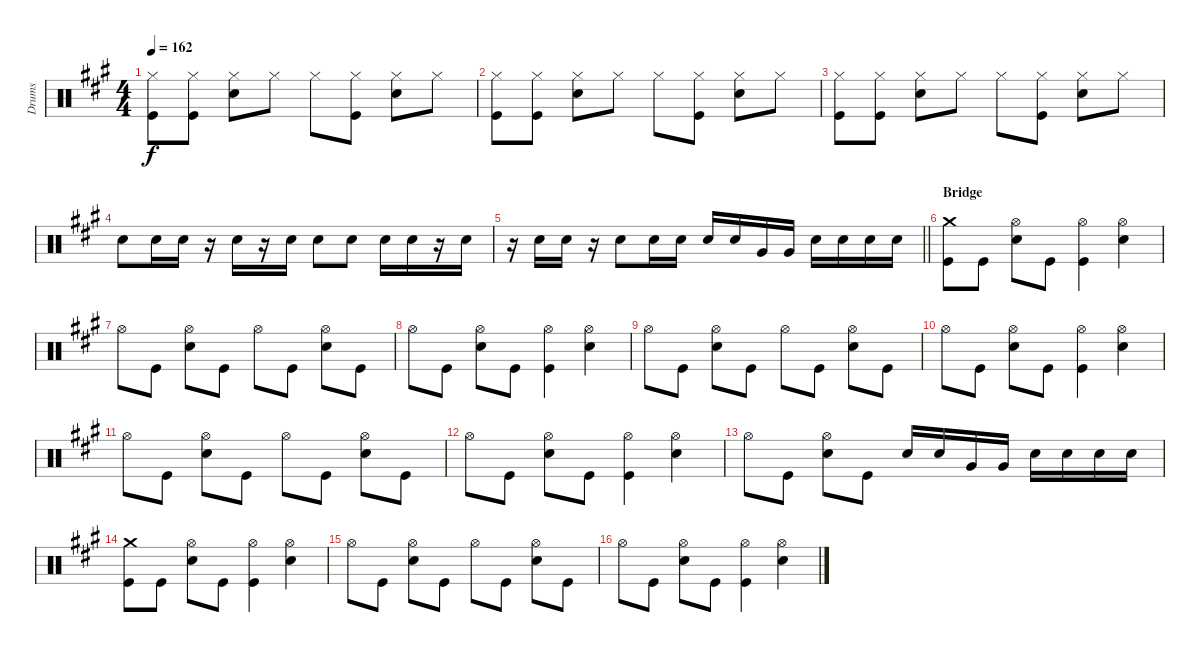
\track ("Drums" "Drums") {instrument percussion}
\staff {score}
\articulation defaults
\ts (4 4)
\tempo 162
\clef neutral
\ks a
("Kick (hit)" "Hi-Hat (closed)").8{dy f} ("Kick (hit)" "Hi-Hat (closed)").8 ("Snare (hit) 2" "Hi-Hat (closed)").8 "Hi-Hat (closed)".8 "Hi-Hat (closed)".8 ("Kick (hit)" "Hi-Hat (closed)").8 ("Snare (hit) 2" "Hi-Hat (closed)").8 "Hi-Hat (closed)".8 |
("Kick (hit)" "Hi-Hat (closed)").8 ("Kick (hit)" "Hi-Hat (closed)").8 ("Snare (hit) 2" "Hi-Hat (closed)").8 "Hi-Hat (closed)".8 "Hi-Hat (closed)".8 ("Kick (hit)" "Hi-Hat (closed)").8 ("Snare (hit) 2" "Hi-Hat (closed)").8 "Hi-Hat (closed)".8 |
("Kick (hit)" "Hi-Hat (closed)").8 ("Kick (hit)" "Hi-Hat (closed)").8 ("Snare (hit) 2" "Hi-Hat (closed)").8 "Hi-Hat (closed)".8 "Hi-Hat (closed)".8 ("Kick (hit)" "Hi-Hat (closed)").8 ("Snare (hit) 2" "Hi-Hat (closed)").8 "Hi-Hat (closed)".8 |
"Snare (hit) 2".8 "Snare (hit) 2".16 "Snare (hit) 2".16 r.16 "Snare (hit) 2".16 r.16 "Snare (hit) 2".16 "Snare (hit) 2".8 "Snare (hit) 2".8 "Snare (hit) 2".16 "Snare (hit) 2".16 r.16 "Snare (hit) 2".16 |
\barLineRight lightlight
r.16 "Snare (hit) 2".16 "Snare (hit) 2".16 r.16 "Snare (hit) 2".8 "Snare (hit) 2".16 "Snare (hit) 2".16 "Snare (hit) 2".16 "Snare (hit) 2".16 "Very Low Tom (hit)".16 "Very Low Tom (hit)".16 "Snare (hit) 2".16 "Snare (hit) 2".16 "Snare (hit) 2".16 "Snare (hit) 2".16 |
\section ("" "Bridge")
("Kick (hit)" "Crash medium (hit)").8 "Kick (hit)".8 ("Snare (hit) 2" "Hi-Hat (open)").8 "Kick (hit)".8 ("Hi-Hat (open)" "Kick (hit)").4 ("Snare (hit) 2" "Hi-Hat (open)").4 |
"Hi-Hat (open)".8 "Kick (hit)".8 ("Snare (hit) 2" "Hi-Hat (open)").8 "Kick (hit)".8 "Hi-Hat (open)".8 "Kick (hit)".8 ("Snare (hit) 2" "Hi-Hat (open)").8 "Kick (hit)".8 |
"Hi-Hat (open)".8 "Kick (hit)".8 ("Snare (hit) 2" "Hi-Hat (open)").8 "Kick (hit)".8 ("Hi-Hat (open)" "Kick (hit)").4 ("Snare (hit) 2" "Hi-Hat (open)").4 |
"Hi-Hat (open)".8 "Kick (hit)".8 ("Snare (hit) 2" "Hi-Hat (open)").8 "Kick (hit)".8 "Hi-Hat (open)".8 "Kick (hit)".8 ("Snare (hit) 2" "Hi-Hat (open)").8 "Kick (hit)".8 |
"Hi-Hat (open)".8 "Kick (hit)".8 ("Snare (hit) 2" "Hi-Hat (open)").8 "Kick (hit)".8 ("Hi-Hat (open)" "Kick (hit)").4 ("Snare (hit) 2" "Hi-Hat (open)").4 |
"Hi-Hat (open)".8 "Kick (hit)".8 ("Snare (hit) 2" "Hi-Hat (open)").8 "Kick (hit)".8 "Hi-Hat (open)".8 "Kick (hit)".8 ("Snare (hit) 2" "Hi-Hat (open)").8 "Kick (hit)".8 |
"Hi-Hat (open)".8 "Kick (hit)".8 ("Snare (hit) 2" "Hi-Hat (open)").8 "Kick (hit)".8 ("Hi-Hat (open)" "Kick (hit)").4 ("Snare (hit) 2" "Hi-Hat (open)").4 |
"Hi-Hat (open)".8 "Kick (hit)".8 ("Snare (hit) 2" "Hi-Hat (open)").8 "Kick (hit)".8 "Snare (hit) 2".16 "Snare (hit) 2".16 "Very Low Tom (hit)".16 "Very Low Tom (hit)".16 "Snare (hit) 2".16 "Snare (hit) 2".16 "Snare (hit) 2".16 "Snare (hit) 2".16 |
("Kick (hit)" "Crash medium (hit)").8 "Kick (hit)".8 ("Snare (hit) 2" "Hi-Hat (open)").8 "Kick (hit)".8 ("Hi-Hat (open)" "Kick (hit)").4 ("Snare (hit) 2" "Hi-Hat (open)").4 |
"Hi-Hat (open)".8 "Kick (hit)".8 ("Snare (hit) 2" "Hi-Hat (open)").8 "Kick (hit)".8 "Hi-Hat (open)".8 "Kick (hit)".8 ("Snare (hit) 2" "Hi-Hat (open)").8 "Kick (hit)".8 |
"Hi-Hat (open)".8 "Kick (hit)".8 ("Snare (hit) 2" "Hi-Hat (open)").8 "Kick (hit)".8 ("Hi-Hat (open)" "Kick (hit)").4 ("Snare (hit) 2" "Hi-Hat (open)").4
